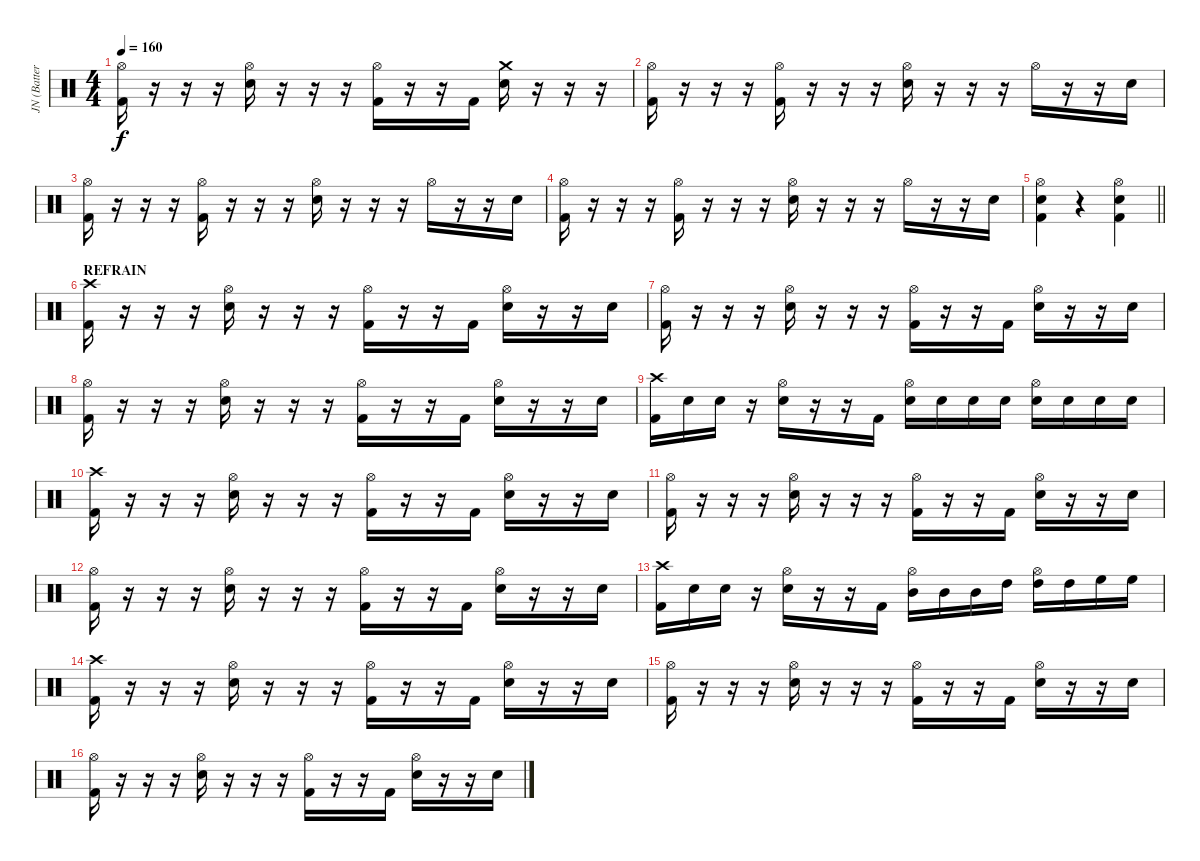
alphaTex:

\track ("JN (Batterie)" "JN (Batter") {instrument percussion}
\staff {score}
\articulation defaults
\ts (4 4)
\tempo 160
\clef neutral
\ks c
("Hi-Hat (open)" "Kick (hit) 2").16{dy f} r.16 r.16 r.16 ("Hi-Hat (open)" "Electric Snare (hit)").16 r.16 r.16 r.16 ("Hi-Hat (open)" "Kick (hit) 2").16 r.16 r.16 "Kick (hit) 2".16 ("Crash medium (hit)" "Electric Snare (hit)").16 r.16 r.16 r.16 |
("Hi-Hat (open)" "Kick (hit) 2").16 r.16 r.16 r.16 ("Hi-Hat (open)" "Kick (hit) 2").16 r.16 r.16 r.16 ("Hi-Hat (open)" "Electric Snare (hit)").16 r.16 r.16 r.16 "Hi-Hat (open)".16 r.16 r.16 "Electric Snare (hit)".16 |
("Hi-Hat (open)" "Kick (hit) 2").16 r.16 r.16 r.16 ("Hi-Hat (open)" "Kick (hit) 2").16 r.16 r.16 r.16 ("Hi-Hat (open)" "Electric Snare (hit)").16 r.16 r.16 r.16 "Hi-Hat (open)".16 r.16 r.16 "Electric Snare (hit)".16 |
("Hi-Hat (open)" "Kick (hit) 2").16 r.16 r.16 r.16 ("Hi-Hat (open)" "Kick (hit) 2").16 r.16 r.16 r.16 ("Hi-Hat (open)" "Electric Snare (hit)").16 r.16 r.16 r.16 "Hi-Hat (open)".16 r.16 r.16 "Electric Snare (hit)".16 |
\barLineRight lightlight
("Electric Snare (hit)" "Hi-Hat (open)" "Kick (hit) 2").4 r.4 ("Electric Snare (hit)" "Hi-Hat (open)" "Kick (hit) 2").4 |
\section ("" "REFRAIN")
("Crash high (hit)" "Kick (hit) 2").16 r.16 r.16 r.16 ("Hi-Hat (open)" "Electric Snare (hit)").16 r.16 r.16 r.16 ("Hi-Hat (open)" "Kick (hit) 2").16 r.16 r.16 "Kick (hit) 2".16 ("Hi-Hat (open)" "Electric Snare (hit)").16 r.16 r.16 "Electric Snare (hit)".16 |
("Hi-Hat (open)" "Kick (hit) 2").16 r.16 r.16 r.16 ("Hi-Hat (open)" "Electric Snare (hit)").16 r.16 r.16 r.16 ("Hi-Hat (open)" "Kick (hit) 2").16 r.16 r.16 "Kick (hit) 2".16 ("Hi-Hat (open)" "Electric Snare (hit)").16 r.16 r.16 "Electric Snare (hit)".16 |
("Hi-Hat (open)" "Kick (hit) 2").16 r.16 r.16 r.16 ("Hi-Hat (open)" "Electric Snare (hit)").16 r.16 r.16 r.16 ("Hi-Hat (open)" "Kick (hit) 2").16 r.16 r.16 "Kick (hit) 2".16 ("Hi-Hat (open)" "Electric Snare (hit)").16 r.16 r.16 "Electric Snare (hit)".16 |
("Crash high (hit)" "Kick (hit) 2").16 "Electric Snare (hit)".16 "Electric Snare (hit)".16 r.16 ("Hi-Hat (open)" "Electric Snare (hit)").16 r.16 r.16 "Kick (hit) 2".16 ("Hi-Hat (open)" "Electric Snare (hit)").16 "Electric Snare (hit)".16 "Electric Snare (hit)".16 "Electric Snare (hit)".16 ("Hi-Hat (open)" "Snare (hit) 2").16 "Electric Snare (hit)".16 "Electric Snare (hit)".16 "Electric Snare (hit)".16 |
("Crash high (hit)" "Kick (hit) 2").16 r.16 r.16 r.16 ("Hi-Hat (open)" "Electric Snare (hit)").16 r.16 r.16 r.16 ("Hi-Hat (open)" "Kick (hit) 2").16 r.16 r.16 "Kick (hit) 2".16 ("Hi-Hat (open)" "Electric Snare (hit)").16 r.16 r.16 "Electric Snare (hit)".16 |
("Hi-Hat (open)" "Kick (hit) 2").16 r.16 r.16 r.16 ("Hi-Hat (open)" "Electric Snare (hit)").16 r.16 r.16 r.16 ("Hi-Hat (open)" "Kick (hit) 2").16 r.16 r.16 "Kick (hit) 2".16 ("Hi-Hat (open)" "Electric Snare (hit)").16 r.16 r.16 "Electric Snare (hit)".16 |
("Hi-Hat (open)" "Kick (hit) 2").16 r.16 r.16 r.16 ("Hi-Hat (open)" "Electric Snare (hit)").16 r.16 r.16 r.16 ("Hi-Hat (open)" "Kick (hit) 2").16 r.16 r.16 "Kick (hit) 2".16 ("Hi-Hat (open)" "Electric Snare (hit)").16 r.16 r.16 "Electric Snare (hit)".16 |
("Crash high (hit)" "Kick (hit) 2").16 "Electric Snare (hit)".16 "Electric Snare (hit)".16 r.16 ("Hi-Hat (open)" "Electric Snare (hit)").16 r.16 r.16 "Kick (hit) 2".16 ("Hi-Hat (open)" "Mid Tom (hit)").16 "Mid Tom (hit)".16 "Mid Tom (hit)".16 "High Tom (hit)".16 ("Hi-Hat (open)" "High Tom (hit)").16 "High Tom (hit)".16 "High Floor Tom (hit)".16 "High Floor Tom (hit)".16 |
("Crash high (hit)" "Kick (hit) 2").16 r.16 r.16 r.16 ("Hi-Hat (open)" "Electric Snare (hit)").16 r.16 r.16 r.16 ("Hi-Hat (open)" "Kick (hit) 2").16 r.16 r.16 "Kick (hit) 2".16 ("Hi-Hat (open)" "Electric Snare (hit)").16 r.16 r.16 "Electric Snare (hit)".16 |
("Hi-Hat (open)" "Kick (hit) 2").16 r.16 r.16 r.16 ("Hi-Hat (open)" "Electric Snare (hit)").16 r.16 r.16 r.16 ("Hi-Hat (open)" "Kick (hit) 2").16 r.16 r.16 "Kick (hit) 2".16 ("Hi-Hat (open)" "Electric Snare (hit)").16 r.16 r.16 "Electric Snare (hit)".16 |
("Hi-Hat (open)" "Kick (hit) 2").16 r.16 r.16 r.16 ("Hi-Hat (open)" "Electric Snare (hit)").16 r.16 r.16 r.16 ("Hi-Hat (open)" "Kick (hit) 2").16 r.16 r.16 "Kick (hit) 2".16 ("Hi-Hat (open)" "Electric Snare (hit)").16 r.16 r.16 "Electric Snare (hit)".16
